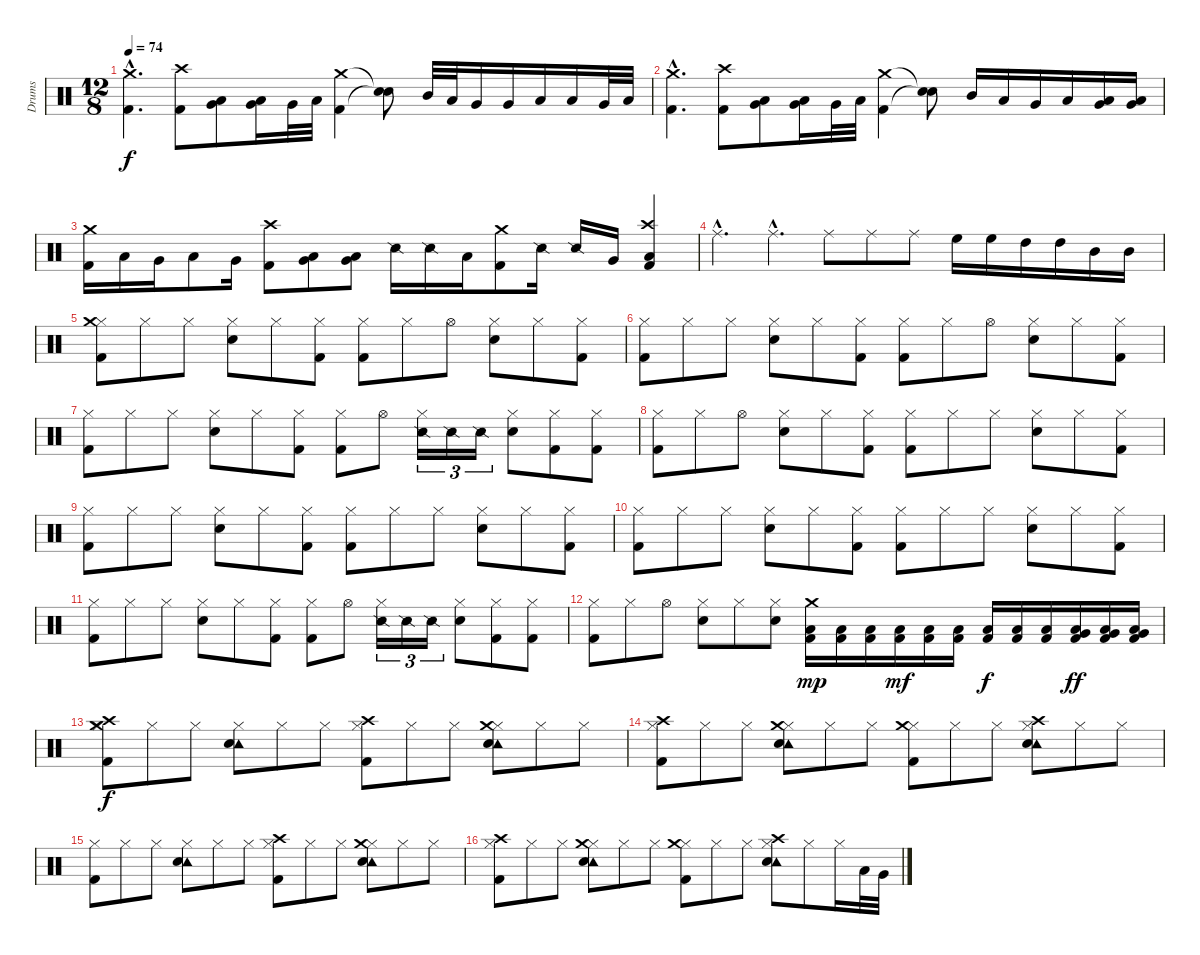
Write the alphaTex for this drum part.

\track ("Drums" "Drums") {instrument percussion}
\staff {score}
\articulation defaults
\ts (12 8)
\tempo 74
\clef neutral
\ks c
("Crash medium (hit)"{hac} "Kick (hit) 2"{hac}).4{d dy f} ("Crash high (hit)" "Kick (hit) 2").8 ("Low Tom (hit)" "Very Low Tom (hit)").8 ("Very Low Tom (hit)" "Low Floor Tom (hit)").16 "Very Low Tom (hit)".32 "Low Floor Tom (hit)".32 ("Crash medium (hit)" "Kick (hit) 2").4 ("Snare (hit)"{t} "Snare (hit)"{t}).8 "Mid Tom (hit)".32 "Low Tom (hit)".32 "Very Low Tom (hit)".16 "Very Low Tom (hit)".16 "Low Floor Tom (hit)".16 "Low Floor Tom (hit)".16 "Very Low Tom (hit)".32 "Low Floor Tom (hit)".32 |
("Crash medium (hit)"{hac} "Kick (hit) 2"{hac}).4{d} ("Crash high (hit)" "Kick (hit) 2").8 ("Low Tom (hit)" "Very Low Tom (hit)").8 ("Very Low Tom (hit)" "Low Floor Tom (hit)").16 "Very Low Tom (hit)".32 "Low Floor Tom (hit)".32 ("Crash medium (hit)" "Kick (hit) 2").4 ("Snare (hit)"{t} "Snare (hit)"{t}).8 "Mid Tom (hit)".16 "Low Tom (hit)".16 "Very Low Tom (hit)".16 "Low Floor Tom (hit)".16 ("Low Tom (hit)" "Very Low Tom (hit)").16 ("Very Low Tom (hit)" "Low Floor Tom (hit)").16 |
("Crash medium (hit)" "Kick (hit) 2").16 "Low Tom (hit)".16 "Very Low Tom (hit)".16 "Low Floor Tom (hit)".8 "Very Low Tom (hit)".16 ("Crash high (hit)" "Kick (hit) 2").8 ("Very Low Tom (hit)" "Low Floor Tom (hit)").8 ("Very Low Tom (hit)" "Low Floor Tom (hit)").8 "Snare (side stick) 2".16 "Snare (side stick) 2".16 "Low Tom (hit)".16 ("Crash medium (hit)" "Kick (hit) 2").8 "Snare (side stick) 2".16 "Snare (side stick) 2".16 "Very Low Tom (hit)".16 ("Crash high (hit)" "Low Floor Tom (hit)" "Kick (hit) 2").4 |
"Ride (middle)"{hac}.4{d} "Ride (middle)"{hac}.4{d} "Ride (middle)".8 "Ride (middle)".8 "Ride (middle)".8 "High Floor Tom (hit)".16 "High Floor Tom (hit)".16 "High Tom (hit)".16 "High Tom (hit)".16 "Mid Tom (hit)".16 "Mid Tom (hit)".16 |
("Hi-Hat (closed)" "Crash medium (hit)" "Kick (hit) 2").8 "Hi-Hat (closed)".8 "Hi-Hat (closed)".8 ("Hi-Hat (closed)" "Metronome (bell)").8 "Hi-Hat (closed)".8 ("Hi-Hat (closed)" "Kick (hit) 2").8 ("Hi-Hat (closed)" "Kick (hit) 2").8 "Hi-Hat (closed)".8 "Hi-Hat (open)".8 ("Hi-Hat (closed)" "Metronome (bell)").8 "Hi-Hat (closed)".8 ("Hi-Hat (closed)" "Kick (hit) 2").8 |
("Hi-Hat (closed)" "Kick (hit) 2").8 "Hi-Hat (closed)".8 "Hi-Hat (closed)".8 ("Hi-Hat (closed)" "Metronome (bell)").8 "Hi-Hat (closed)".8 ("Hi-Hat (closed)" "Kick (hit) 2").8 ("Hi-Hat (closed)" "Kick (hit) 2").8 "Hi-Hat (closed)".8 "Hi-Hat (open)".8 ("Hi-Hat (closed)" "Metronome (bell)").8 "Hi-Hat (closed)".8 ("Hi-Hat (closed)" "Kick (hit) 2").8 |
("Hi-Hat (closed)" "Kick (hit) 2").8 "Hi-Hat (closed)".8 "Hi-Hat (closed)".8 ("Hi-Hat (closed)" "Metronome (bell)").8 "Hi-Hat (closed)".8 ("Hi-Hat (closed)" "Kick (hit) 2").8 ("Hi-Hat (closed)" "Kick (hit) 2").8 "Hi-Hat (open)".8 ("Hi-Hat (closed)" "Snare (side stick) 2").16{tu (3 2)} "Snare (side stick) 2".16{tu (3 2)} "Snare (side stick) 2".16{tu (3 2)} ("Hi-Hat (closed)" "Metronome (bell)").8 ("Hi-Hat (closed)" "Kick (hit) 2").8 ("Hi-Hat (closed)" "Kick (hit) 2").8 |
("Hi-Hat (closed)" "Kick (hit) 2").8 "Hi-Hat (closed)".8 "Hi-Hat (open)".8 ("Hi-Hat (closed)" "Metronome (bell)").8 "Hi-Hat (closed)".8 ("Hi-Hat (closed)" "Kick (hit) 2").8 ("Hi-Hat (closed)" "Kick (hit) 2").8 "Hi-Hat (closed)".8 "Hi-Hat (closed)".8 ("Hi-Hat (closed)" "Metronome (bell)").8 "Hi-Hat (closed)".8 ("Hi-Hat (closed)" "Kick (hit) 2").8 |
("Hi-Hat (closed)" "Kick (hit) 2").8 "Hi-Hat (closed)".8 "Hi-Hat (closed)".8 ("Hi-Hat (closed)" "Metronome (bell)").8 "Hi-Hat (closed)".8 ("Hi-Hat (closed)" "Kick (hit) 2").8 ("Hi-Hat (closed)" "Kick (hit) 2").8 "Hi-Hat (closed)".8 "Hi-Hat (closed)".8 ("Hi-Hat (closed)" "Metronome (bell)").8 "Hi-Hat (closed)".8 ("Hi-Hat (closed)" "Kick (hit) 2").8 |
("Hi-Hat (closed)" "Kick (hit) 2").8 "Hi-Hat (closed)".8 "Hi-Hat (closed)".8 ("Hi-Hat (closed)" "Metronome (bell)").8 "Hi-Hat (closed)".8 ("Hi-Hat (closed)" "Kick (hit) 2").8 ("Hi-Hat (closed)" "Kick (hit) 2").8 "Hi-Hat (closed)".8 "Hi-Hat (closed)".8 ("Hi-Hat (closed)" "Metronome (bell)").8 "Hi-Hat (closed)".8 ("Hi-Hat (closed)" "Kick (hit) 2").8 |
("Hi-Hat (closed)" "Kick (hit) 2").8 "Hi-Hat (closed)".8 "Hi-Hat (closed)".8 ("Hi-Hat (closed)" "Metronome (bell)").8 "Hi-Hat (closed)".8 ("Hi-Hat (closed)" "Kick (hit) 2").8 ("Hi-Hat (closed)" "Kick (hit) 2").8 "Hi-Hat (open)".8 ("Hi-Hat (closed)" "Snare (side stick) 2").16{tu (3 2)} "Snare (side stick) 2".16{tu (3 2)} "Snare (side stick) 2".16{tu (3 2)} ("Hi-Hat (closed)" "Metronome (bell)").8 ("Hi-Hat (closed)" "Kick (hit) 2").8 ("Hi-Hat (closed)" "Kick (hit) 2").8 |
("Hi-Hat (closed)" "Kick (hit) 2").8 "Hi-Hat (closed)".8 "Hi-Hat (open)".8 ("Hi-Hat (closed)" "Metronome (bell)").8 "Hi-Hat (closed)".8 ("Hi-Hat (closed)" "Metronome (bell)").8 ("Crash medium (hit)" "Low Floor Tom (hit)" "Kick (hit) 2").16{dy mp} ("Low Floor Tom (hit)" "Kick (hit) 2").16 ("Low Floor Tom (hit)" "Kick (hit) 2").16 ("Low Floor Tom (hit)" "Kick (hit) 2").16{dy mf} ("Low Floor Tom (hit)" "Kick (hit) 2").16 ("Low Floor Tom (hit)" "Kick (hit) 2").16 ("Low Floor Tom (hit)" "Kick (hit) 2").16{dy f} ("Low Floor Tom (hit)" "Kick (hit) 2").16 ("Low Floor Tom (hit)" "Kick (hit) 2").16 ("Very Low Tom (hit)" "Low Floor Tom (hit)" "Kick (hit) 2").16{dy ff} ("Very Low Tom (hit)" "Low Floor Tom (hit)" "Kick (hit) 2").16 ("Very Low Tom (hit)" "Low Floor Tom (hit)" "Kick (hit) 2").16 |
("Hi-Hat (closed)" "Crash medium (hit)" "Crash high (hit)" "Kick (hit) 2").8{dy f} "Hi-Hat (closed)".8 "Hi-Hat (closed)".8 ("Hi-Hat (closed)" "Tambourine (hit)" "Metronome (bell)").8 "Hi-Hat (closed)".8 "Hi-Hat (closed)".8 ("Hi-Hat (closed)" "Crash high (hit)" "Kick (hit) 2").8 "Hi-Hat (closed)".8 "Hi-Hat (closed)".8 ("Hi-Hat (closed)" "Crash medium (hit)" "Tambourine (hit)" "Metronome (bell)").8 "Hi-Hat (closed)".8 "Hi-Hat (closed)".8 |
("Hi-Hat (closed)" "Crash high (hit)" "Kick (hit) 2").8 "Hi-Hat (closed)".8 "Hi-Hat (closed)".8 ("Hi-Hat (closed)" "Crash medium (hit)" "Tambourine (hit)" "Metronome (bell)").8 "Hi-Hat (closed)".8 "Hi-Hat (closed)".8 ("Hi-Hat (closed)" "Crash medium (hit)" "Kick (hit) 2").8 "Hi-Hat (closed)".8 "Hi-Hat (closed)".8 ("Hi-Hat (closed)" "Crash high (hit)" "Tambourine (hit)" "Metronome (bell)").8 "Hi-Hat (closed)".8 "Hi-Hat (closed)".8 |
("Hi-Hat (closed)" "Kick (hit) 2").8 "Hi-Hat (closed)".8 "Hi-Hat (closed)".8 ("Hi-Hat (closed)" "Tambourine (hit)" "Metronome (bell)").8 "Hi-Hat (closed)".8 "Hi-Hat (closed)".8 ("Hi-Hat (closed)" "Crash high (hit)" "Kick (hit) 2").8 "Hi-Hat (closed)".8 "Hi-Hat (closed)".8 ("Hi-Hat (closed)" "Crash medium (hit)" "Tambourine (hit)" "Metronome (bell)").8 "Hi-Hat (closed)".8 "Hi-Hat (closed)".8 |
("Hi-Hat (closed)" "Crash high (hit)" "Kick (hit) 2").8 "Hi-Hat (closed)".8 "Hi-Hat (closed)".8 ("Hi-Hat (closed)" "Crash medium (hit)" "Tambourine (hit)" "Metronome (bell)").8 "Hi-Hat (closed)".8 "Hi-Hat (closed)".8 ("Hi-Hat (closed)" "Crash medium (hit)" "Kick (hit) 2").8 "Hi-Hat (closed)".8 "Hi-Hat (closed)".8 ("Hi-Hat (closed)" "Crash high (hit)" "Tambourine (hit)" "Metronome (bell)").8 "Hi-Hat (closed)".8 "Hi-Hat (closed)".16 "Low Tom (hit)".32 "Very Low Tom (hit)".32
